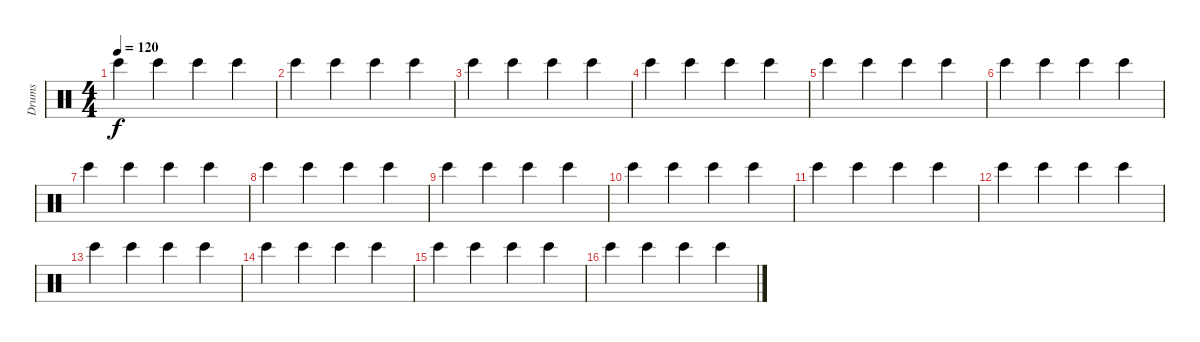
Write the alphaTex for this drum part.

\track ("Drums" "Drums") {instrument percussion}
\staff {score}
\articulation defaults
\ts (4 4)
\tempo 120
\clef neutral
\ks c "Bongo High (hit)".4{dy f} "Bongo High (hit)".4 "Bongo High (hit)".4 "Bongo High (hit)".4
|
"Bongo High (hit)".4 "Bongo High (hit)".4 "Bongo High (hit)".4 "Bongo High (hit)".4 |
"Bongo High (hit)".4 "Bongo High (hit)".4 "Bongo High (hit)".4 "Bongo High (hit)".4 |
"Bongo High (hit)".4 "Bongo High (hit)".4 "Bongo High (hit)".4 "Bongo High (hit)".4 |
"Bongo High (hit)".4 "Bongo High (hit)".4 "Bongo High (hit)".4 "Bongo High (hit)".4 |
"Bongo High (hit)".4 "Bongo High (hit)".4 "Bongo High (hit)".4 "Bongo High (hit)".4 |
"Bongo High (hit)".4 "Bongo High (hit)".4 "Bongo High (hit)".4 "Bongo High (hit)".4 |
"Bongo High (hit)".4 "Bongo High (hit)".4 "Bongo High (hit)".4 "Bongo High (hit)".4 |
"Bongo High (hit)".4 "Bongo High (hit)".4 "Bongo High (hit)".4 "Bongo High (hit)".4 |
"Bongo High (hit)".4 "Bongo High (hit)".4 "Bongo High (hit)".4 "Bongo High (hit)".4 |
"Bongo High (hit)".4 "Bongo High (hit)".4 "Bongo High (hit)".4 "Bongo High (hit)".4 |
"Bongo High (hit)".4 "Bongo High (hit)".4 "Bongo High (hit)".4 "Bongo High (hit)".4 |
"Bongo High (hit)".4 "Bongo High (hit)".4 "Bongo High (hit)".4 "Bongo High (hit)".4 |
"Bongo High (hit)".4 "Bongo High (hit)".4 "Bongo High (hit)".4 "Bongo High (hit)".4 |
"Bongo High (hit)".4 "Bongo High (hit)".4 "Bongo High (hit)".4 "Bongo High (hit)".4 |
"Bongo High (hit)".4 "Bongo High (hit)".4 "Bongo High (hit)".4 "Bongo High (hit)".4
